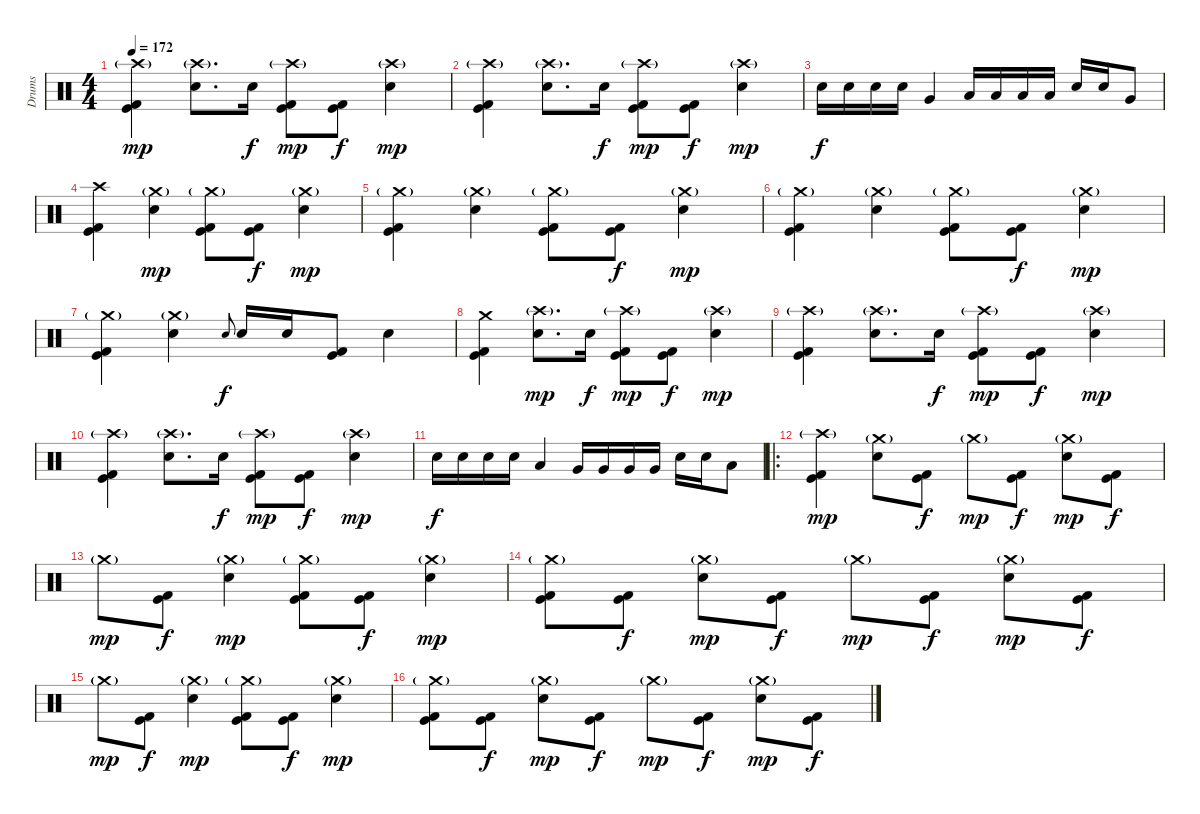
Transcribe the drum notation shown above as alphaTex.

\track ("Drums" "Drums") {instrument percussion}
\staff {score}
\articulation defaults
\ts (4 4)
\tempo 172
\clef neutral
\ks c
("Crash high (hit)"{g} "Kick (hit)" "Kick (hit) 2").4{dy mp} ("Crash high (hit)"{g} "Electric Snare (hit)").8{d} "Electric Snare (hit)".16{dy f} ("Crash high (hit)"{g} "Kick (hit)" "Kick (hit) 2").8{dy mp} ("Kick (hit)" "Kick (hit) 2").8{dy f} ("Crash high (hit)"{g} "Electric Snare (hit)").4{dy mp} |
("Crash high (hit)"{g} "Kick (hit)" "Kick (hit) 2").4 ("Crash high (hit)"{g} "Electric Snare (hit)").8{d} "Electric Snare (hit)".16{dy f} ("Crash high (hit)"{g} "Kick (hit)" "Kick (hit) 2").8{dy mp} ("Kick (hit)" "Kick (hit) 2").8{dy f} ("Crash high (hit)"{g} "Electric Snare (hit)").4{dy mp} |
"Electric Snare (hit)".16{dy f} "Electric Snare (hit)".16 "Electric Snare (hit)".16 "Electric Snare (hit)".16 "Very Low Tom (hit)".4 "Low Tom (hit)".16 "Low Tom (hit)".16 "Low Tom (hit)".16 "Low Tom (hit)".16 "Electric Snare (hit)".16 "Electric Snare (hit)".16 "Very Low Tom (hit)".8 |
("Crash high (hit)" "Kick (hit)" "Kick (hit) 2").4 ("Crash medium (hit)"{g} "Electric Snare (hit)").4{dy mp} ("Crash medium (hit)"{g} "Kick (hit)" "Kick (hit) 2").8 ("Kick (hit)" "Kick (hit) 2").8{dy f} ("Crash medium (hit)"{g} "Electric Snare (hit)").4{dy mp} |
("Crash medium (hit)"{g} "Kick (hit)" "Kick (hit) 2").4 ("Crash medium (hit)"{g} "Electric Snare (hit)").4 ("Crash medium (hit)"{g} "Kick (hit)" "Kick (hit) 2").8 ("Kick (hit)" "Kick (hit) 2").8{dy f} ("Crash medium (hit)"{g} "Electric Snare (hit)").4{dy mp} |
("Crash medium (hit)"{g} "Kick (hit)" "Kick (hit) 2").4 ("Crash medium (hit)"{g} "Electric Snare (hit)").4 ("Crash medium (hit)"{g} "Kick (hit)" "Kick (hit) 2").8 ("Kick (hit)" "Kick (hit) 2").8{dy f} ("Crash medium (hit)"{g} "Electric Snare (hit)").4{dy mp} |
("Crash medium (hit)"{g} "Kick (hit)" "Kick (hit) 2").4 ("Crash medium (hit)"{g} "Electric Snare (hit)").4 "Electric Snare (hit)".8{gr onbeat dy f} "Electric Snare (hit)".16 "Electric Snare (hit)".16 ("Kick (hit)" "Kick (hit) 2").8 "Electric Snare (hit)".4 |
("Crash medium (hit)" "Kick (hit)" "Kick (hit) 2").4 ("Crash high (hit)"{g} "Electric Snare (hit)").8{d dy mp} "Electric Snare (hit)".16{dy f} ("Crash high (hit)"{g} "Kick (hit)" "Kick (hit) 2").8{dy mp} ("Kick (hit)" "Kick (hit) 2").8{dy f} ("Crash high (hit)"{g} "Electric Snare (hit)").4{dy mp} |
("Crash high (hit)"{g} "Kick (hit)" "Kick (hit) 2").4 ("Crash high (hit)"{g} "Electric Snare (hit)").8{d} "Electric Snare (hit)".16{dy f} ("Crash high (hit)"{g} "Kick (hit)" "Kick (hit) 2").8{dy mp} ("Kick (hit)" "Kick (hit) 2").8{dy f} ("Crash high (hit)"{g} "Electric Snare (hit)").4{dy mp} |
("Crash high (hit)"{g} "Kick (hit)" "Kick (hit) 2").4 ("Crash high (hit)"{g} "Electric Snare (hit)").8{d} "Electric Snare (hit)".16{dy f} ("Crash high (hit)"{g} "Kick (hit)" "Kick (hit) 2").8{dy mp} ("Kick (hit)" "Kick (hit) 2").8{dy f} ("Crash high (hit)"{g} "Electric Snare (hit)").4{dy mp} |
"Electric Snare (hit)".16{dy f} "Electric Snare (hit)".16 "Electric Snare (hit)".16 "Electric Snare (hit)".16 "Low Tom (hit)".4 "Very Low Tom (hit)".16 "Very Low Tom (hit)".16 "Very Low Tom (hit)".16 "Very Low Tom (hit)".16 "Electric Snare (hit)".16 "Electric Snare (hit)".16 "Low Tom (hit)".8 |
\ro
("Crash high (hit)"{g} "Kick (hit)" "Kick (hit) 2").4{dy mp} ("Crash medium (hit)"{g} "Electric Snare (hit)").8 ("Kick (hit)" "Kick (hit) 2").8{dy f} "Crash medium (hit)"{g}.8{dy mp} ("Kick (hit)" "Kick (hit) 2").8{dy f} ("Crash medium (hit)"{g} "Electric Snare (hit)").8{dy mp} ("Kick (hit)" "Kick (hit) 2").8{dy f} |
"Crash medium (hit)"{g}.8{dy mp} ("Kick (hit)" "Kick (hit) 2").8{dy f} ("Crash medium (hit)"{g} "Electric Snare (hit)").4{dy mp} ("Crash medium (hit)"{g} "Kick (hit)" "Kick (hit) 2").8 ("Kick (hit)" "Kick (hit) 2").8{dy f} ("Crash medium (hit)"{g} "Electric Snare (hit)").4{dy mp} |
("Crash medium (hit)"{g} "Kick (hit)" "Kick (hit) 2").8 ("Kick (hit)" "Kick (hit) 2").8{dy f} ("Crash medium (hit)"{g} "Electric Snare (hit)").8{dy mp} ("Kick (hit)" "Kick (hit) 2").8{dy f} "Crash medium (hit)"{g}.8{dy mp} ("Kick (hit)" "Kick (hit) 2").8{dy f} ("Crash medium (hit)"{g} "Electric Snare (hit)").8{dy mp} ("Kick (hit)" "Kick (hit) 2").8{dy f} |
"Crash medium (hit)"{g}.8{dy mp} ("Kick (hit)" "Kick (hit) 2").8{dy f} ("Crash medium (hit)"{g} "Electric Snare (hit)").4{dy mp} ("Crash medium (hit)"{g} "Kick (hit)" "Kick (hit) 2").8 ("Kick (hit)" "Kick (hit) 2").8{dy f} ("Crash medium (hit)"{g} "Electric Snare (hit)").4{dy mp} |
("Crash medium (hit)"{g} "Kick (hit)" "Kick (hit) 2").8 ("Kick (hit)" "Kick (hit) 2").8{dy f} ("Crash medium (hit)"{g} "Electric Snare (hit)").8{dy mp} ("Kick (hit)" "Kick (hit) 2").8{dy f} "Crash medium (hit)"{g}.8{dy mp} ("Kick (hit)" "Kick (hit) 2").8{dy f} ("Crash medium (hit)"{g} "Electric Snare (hit)").8{dy mp} ("Kick (hit)" "Kick (hit) 2").8{dy f}
